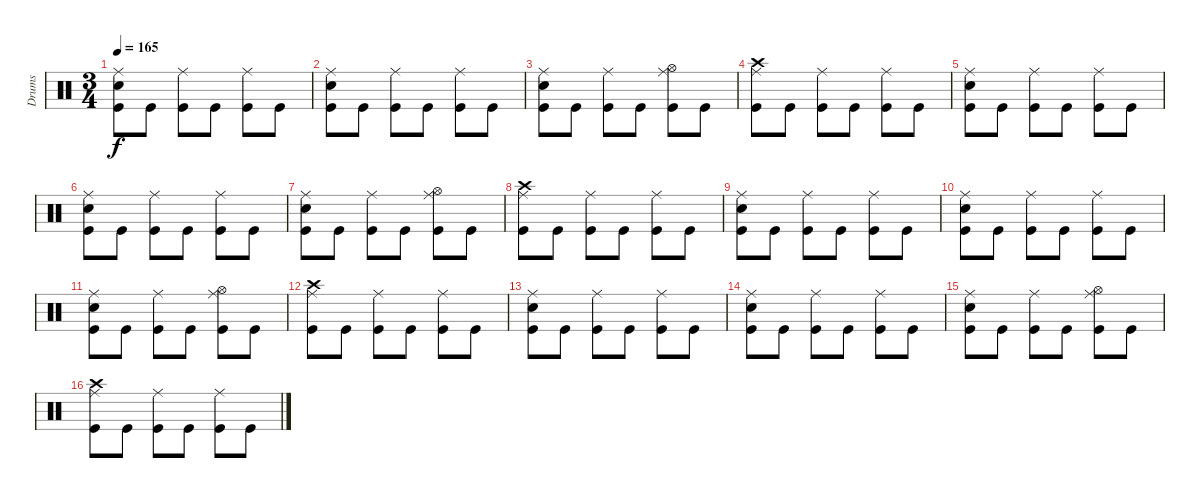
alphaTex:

\track ("Drums" "Drums") {instrument percussion}
\staff {score}
\articulation defaults
\ts (3 4)
\tempo 165
\clef neutral
\ks c
("Ride (middle)" "Snare (hit) 2" "Kick (hit)").8{dy f} "Kick (hit)".8 ("Ride (middle)" "Kick (hit)").8 "Kick (hit)".8 ("Ride (middle)" "Kick (hit)").8 "Kick (hit)".8 |
("Ride (middle)" "Snare (hit) 2" "Kick (hit)").8 "Kick (hit)".8 ("Ride (middle)" "Kick (hit)").8 "Kick (hit)".8 ("Ride (middle)" "Kick (hit)").8 "Kick (hit)".8 |
("Ride (middle)" "Snare (hit) 2" "Kick (hit)").8 "Kick (hit)".8 ("Ride (middle)" "Kick (hit)").8 "Kick (hit)".8 ("Ride (middle)" "Hi-Hat (open)" "Kick (hit)").8 "Kick (hit)".8 |
("Ride (middle)" "Crash high (hit)" "Kick (hit)").8 "Kick (hit)".8 ("Ride (middle)" "Kick (hit)").8 "Kick (hit)".8 ("Ride (middle)" "Kick (hit)").8 "Kick (hit)".8 |
("Ride (middle)" "Snare (hit) 2" "Kick (hit)").8 "Kick (hit)".8 ("Ride (middle)" "Kick (hit)").8 "Kick (hit)".8 ("Ride (middle)" "Kick (hit)").8 "Kick (hit)".8 |
("Ride (middle)" "Snare (hit) 2" "Kick (hit)").8 "Kick (hit)".8 ("Ride (middle)" "Kick (hit)").8 "Kick (hit)".8 ("Ride (middle)" "Kick (hit)").8 "Kick (hit)".8 |
("Ride (middle)" "Snare (hit) 2" "Kick (hit)").8 "Kick (hit)".8 ("Ride (middle)" "Kick (hit)").8 "Kick (hit)".8 ("Ride (middle)" "Hi-Hat (open)" "Kick (hit)").8 "Kick (hit)".8 |
("Ride (middle)" "Crash high (hit)" "Kick (hit)").8 "Kick (hit)".8 ("Ride (middle)" "Kick (hit)").8 "Kick (hit)".8 ("Ride (middle)" "Kick (hit)").8 "Kick (hit)".8 |
("Ride (middle)" "Snare (hit) 2" "Kick (hit)").8 "Kick (hit)".8 ("Ride (middle)" "Kick (hit)").8 "Kick (hit)".8 ("Ride (middle)" "Kick (hit)").8 "Kick (hit)".8 |
("Ride (middle)" "Snare (hit) 2" "Kick (hit)").8 "Kick (hit)".8 ("Ride (middle)" "Kick (hit)").8 "Kick (hit)".8 ("Ride (middle)" "Kick (hit)").8 "Kick (hit)".8 |
("Ride (middle)" "Snare (hit) 2" "Kick (hit)").8 "Kick (hit)".8 ("Ride (middle)" "Kick (hit)").8 "Kick (hit)".8 ("Ride (middle)" "Hi-Hat (open)" "Kick (hit)").8 "Kick (hit)".8 |
("Ride (middle)" "Crash high (hit)" "Kick (hit)").8 "Kick (hit)".8 ("Ride (middle)" "Kick (hit)").8 "Kick (hit)".8 ("Ride (middle)" "Kick (hit)").8 "Kick (hit)".8 |
("Ride (middle)" "Snare (hit) 2" "Kick (hit)").8 "Kick (hit)".8 ("Ride (middle)" "Kick (hit)").8 "Kick (hit)".8 ("Ride (middle)" "Kick (hit)").8 "Kick (hit)".8 |
("Ride (middle)" "Snare (hit) 2" "Kick (hit)").8 "Kick (hit)".8 ("Ride (middle)" "Kick (hit)").8 "Kick (hit)".8 ("Ride (middle)" "Kick (hit)").8 "Kick (hit)".8 |
("Ride (middle)" "Snare (hit) 2" "Kick (hit)").8 "Kick (hit)".8 ("Ride (middle)" "Kick (hit)").8 "Kick (hit)".8 ("Ride (middle)" "Hi-Hat (open)" "Kick (hit)").8 "Kick (hit)".8 |
("Ride (middle)" "Crash high (hit)" "Kick (hit)").8 "Kick (hit)".8 ("Ride (middle)" "Kick (hit)").8 "Kick (hit)".8 ("Ride (middle)" "Kick (hit)").8 "Kick (hit)".8
